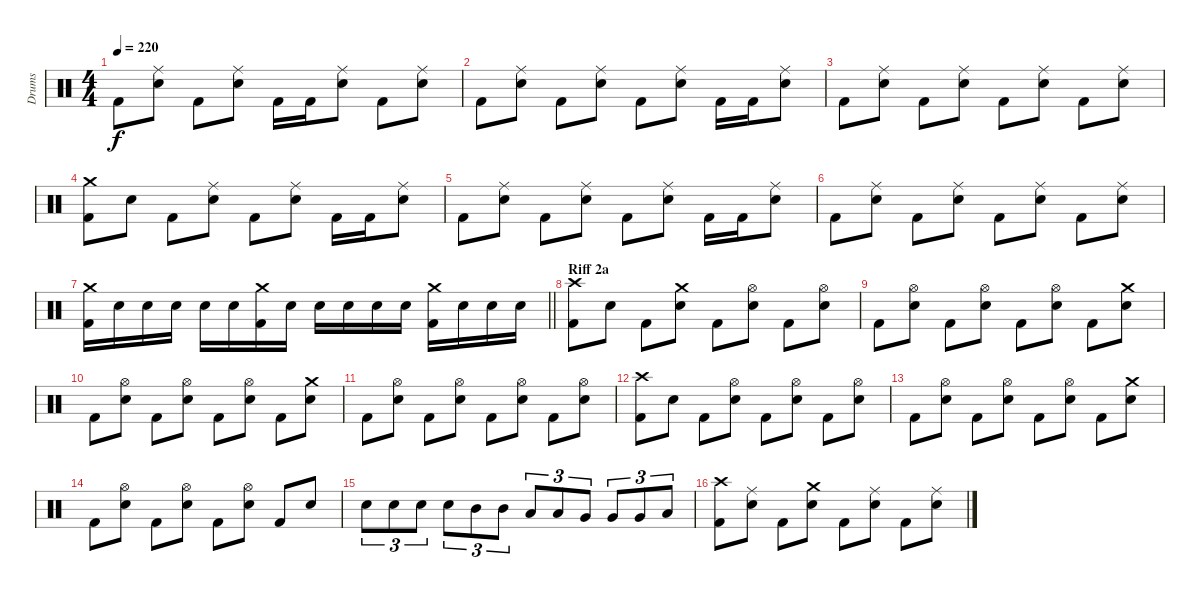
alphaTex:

\track ("Drums" "Drums") {instrument percussion}
\staff {score}
\articulation defaults
\ts (4 4)
\tempo 220
\clef neutral
\ks c "Kick (hit) 2".8{dy f}
("Electric Snare (hit)" "Ride (middle)").8 "Kick (hit) 2".8 ("Electric Snare (hit)" "Ride (middle)").8 "Kick (hit) 2".16 "Kick (hit) 2".16 ("Electric Snare (hit)" "Ride (middle)").8 "Kick (hit) 2".8 ("Electric Snare (hit)" "Ride (middle)").8 |
"Kick (hit) 2".8 ("Electric Snare (hit)" "Ride (middle)").8 "Kick (hit) 2".8 ("Electric Snare (hit)" "Ride (middle)").8 "Kick (hit) 2".8 ("Electric Snare (hit)" "Ride (middle)").8 "Kick (hit) 2".16 "Kick (hit) 2".16 ("Electric Snare (hit)" "Ride (middle)").8 |
"Kick (hit) 2".8 ("Electric Snare (hit)" "Ride (middle)").8 "Kick (hit) 2".8 ("Electric Snare (hit)" "Ride (middle)").8 "Kick (hit) 2".8 ("Electric Snare (hit)" "Ride (middle)").8 "Kick (hit) 2".8 ("Electric Snare (hit)" "Ride (middle)").8 |
("Kick (hit) 2" "Crash medium (hit)").8 "Electric Snare (hit)".8 "Kick (hit) 2".8 ("Electric Snare (hit)" "Ride (middle)").8 "Kick (hit) 2".8 ("Electric Snare (hit)" "Ride (middle)").8 "Kick (hit) 2".16 "Kick (hit) 2".16 ("Electric Snare (hit)" "Ride (middle)").8 |
"Kick (hit) 2".8 ("Electric Snare (hit)" "Ride (middle)").8 "Kick (hit) 2".8 ("Electric Snare (hit)" "Ride (middle)").8 "Kick (hit) 2".8 ("Electric Snare (hit)" "Ride (middle)").8 "Kick (hit) 2".16 "Kick (hit) 2".16 ("Electric Snare (hit)" "Ride (middle)").8 |
"Kick (hit) 2".8 ("Electric Snare (hit)" "Ride (middle)").8 "Kick (hit) 2".8 ("Electric Snare (hit)" "Ride (middle)").8 "Kick (hit) 2".8 ("Electric Snare (hit)" "Ride (middle)").8 "Kick (hit) 2".8 ("Electric Snare (hit)" "Ride (middle)").8 |
\barLineRight lightlight
("Crash medium (hit)" "Kick (hit) 2").16 "Electric Snare (hit)".16 "Electric Snare (hit)".16 "Electric Snare (hit)".16 "Electric Snare (hit)".16 "Electric Snare (hit)".16 ("Crash medium (hit)" "Kick (hit) 2").16 "Electric Snare (hit)".16 "Electric Snare (hit)".16 "Electric Snare (hit)".16 "Electric Snare (hit)".16 "Electric Snare (hit)".16 ("Crash medium (hit)" "Kick (hit) 2").16 "Electric Snare (hit)".16 "Electric Snare (hit)".16 "Electric Snare (hit)".16 |
\section ("" "Riff 2a")
("Crash high (hit)" "Kick (hit) 2").8 "Electric Snare (hit)".8 "Kick (hit) 2".8 ("Crash medium (hit)" "Electric Snare (hit)").8 "Kick (hit) 2".8 ("Hi-Hat (open)" "Electric Snare (hit)").8 "Kick (hit) 2".8 ("Electric Snare (hit)" "Hi-Hat (open)").8 |
"Kick (hit) 2".8 ("Hi-Hat (open)" "Electric Snare (hit)").8 "Kick (hit) 2".8 ("Electric Snare (hit)" "Hi-Hat (open)").8 "Kick (hit) 2".8 ("Hi-Hat (open)" "Electric Snare (hit)").8 "Kick (hit) 2".8 ("Electric Snare (hit)" "Crash medium (hit)").8 |
"Kick (hit) 2".8 ("Hi-Hat (open)" "Electric Snare (hit)").8 "Kick (hit) 2".8 ("Electric Snare (hit)" "Hi-Hat (open)").8 "Kick (hit) 2".8 ("Hi-Hat (open)" "Electric Snare (hit)").8 "Kick (hit) 2".8 ("Electric Snare (hit)" "Crash medium (hit)").8 |
"Kick (hit) 2".8 ("Hi-Hat (open)" "Electric Snare (hit)").8 "Kick (hit) 2".8 ("Electric Snare (hit)" "Hi-Hat (open)").8 "Kick (hit) 2".8 ("Hi-Hat (open)" "Electric Snare (hit)").8 "Kick (hit) 2".8 ("Hi-Hat (open)" "Electric Snare (hit)").8 |
("Crash high (hit)" "Kick (hit) 2").8 "Electric Snare (hit)".8 "Kick (hit) 2".8 ("Hi-Hat (open)" "Electric Snare (hit)").8 "Kick (hit) 2".8 ("Hi-Hat (open)" "Electric Snare (hit)").8 "Kick (hit) 2".8 ("Electric Snare (hit)" "Hi-Hat (open)").8 |
"Kick (hit) 2".8 ("Hi-Hat (open)" "Electric Snare (hit)").8 "Kick (hit) 2".8 ("Electric Snare (hit)" "Hi-Hat (open)").8 "Kick (hit) 2".8 ("Hi-Hat (open)" "Electric Snare (hit)").8 "Kick (hit) 2".8 ("Electric Snare (hit)" "Crash medium (hit)").8 |
"Kick (hit) 2".8 ("Hi-Hat (open)" "Electric Snare (hit)").8 "Kick (hit) 2".8 ("Electric Snare (hit)" "Hi-Hat (open)").8 "Kick (hit) 2".8 ("Hi-Hat (open)" "Electric Snare (hit)").8 "Kick (hit) 2".8 "Electric Snare (hit)".8 |
"Electric Snare (hit)".8{tu (3 2)} "Electric Snare (hit)".8{tu (3 2)} "Electric Snare (hit)".8{tu (3 2)} "Electric Snare (hit)".8{tu (3 2)} "Mid Tom (hit)".8{tu (3 2)} "Mid Tom (hit)".8{tu (3 2)} "Low Tom (hit)".8{tu (3 2)} "Low Tom (hit)".8{tu (3 2)} "Very Low Tom (hit)".8{tu (3 2)} "Very Low Tom (hit)".8{tu (3 2)} "Very Low Tom (hit)".8{tu (3 2)} "Low Floor Tom (hit)".8{tu (3 2)} |
("Crash high (hit)" "Kick (hit) 2").8 ("Ride (middle)" "Electric Snare (hit)").8 "Kick (hit) 2".8 ("Crash medium (hit)" "Electric Snare (hit)").8 "Kick (hit) 2".8 ("Ride (middle)" "Electric Snare (hit)").8 "Kick (hit) 2".8 ("Electric Snare (hit)" "Ride (middle)").8
